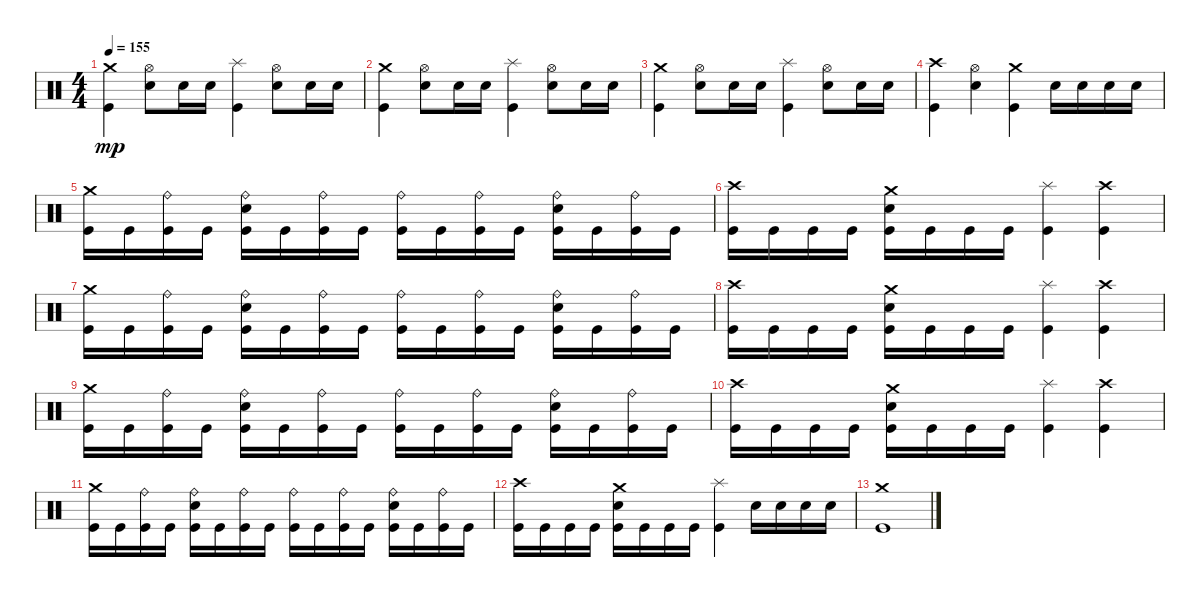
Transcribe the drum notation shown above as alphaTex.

\track "" {instrument percussion}
\staff {score}
\articulation defaults
\ts (4 4)
\tempo 155
\clef neutral
\ks c
("Crash medium (hit)" "Kick (hit)").4{dy mp} ("Snare (hit) 2" "Hi-Hat (open)").8 "Snare (hit) 2".16 "Snare (hit) 2".16 ("Splash (hit)" "Kick (hit)").4 ("Snare (hit) 2" "Hi-Hat (open)").8 "Snare (hit) 2".16 "Snare (hit) 2".16 |
("Crash medium (hit)" "Kick (hit)").4 ("Snare (hit) 2" "Hi-Hat (open)").8 "Snare (hit) 2".16 "Snare (hit) 2".16 ("Splash (hit)" "Kick (hit)").4 ("Snare (hit) 2" "Hi-Hat (open)").8 "Snare (hit) 2".16 "Snare (hit) 2".16 |
("Crash medium (hit)" "Kick (hit)").4 ("Snare (hit) 2" "Hi-Hat (open)").8 "Snare (hit) 2".16 "Snare (hit) 2".16 ("Splash (hit)" "Kick (hit)").4 ("Snare (hit) 2" "Hi-Hat (open)").8 "Snare (hit) 2".16 "Snare (hit) 2".16 |
("Crash high (hit)" "Kick (hit)").4 ("Snare (hit) 2" "Hi-Hat (open)").4 ("Kick (hit)" "Crash medium (hit)").4 "Snare (hit) 2".16 "Snare (hit) 2".16 "Snare (hit) 2".16 "Snare (hit) 2".16 |
("Kick (hit)" "Crash medium (hit)").16 "Kick (hit)".16 ("Kick (hit)" "Ride (bell)").16 "Kick (hit)".16 ("Kick (hit)" "Snare (hit) 2" "Ride (bell)").16 "Kick (hit)".16 ("Kick (hit)" "Ride (bell)").16 "Kick (hit)".16 ("Kick (hit)" "Ride (bell)").16 "Kick (hit)".16 ("Kick (hit)" "Ride (bell)").16 "Kick (hit)".16 ("Kick (hit)" "Snare (hit) 2" "Ride (bell)").16 "Kick (hit)".16 ("Kick (hit)" "Ride (bell)").16 "Kick (hit)".16 |
("Kick (hit)" "Crash high (hit)").16 "Kick (hit)".16 "Kick (hit)".16 "Kick (hit)".16 ("Kick (hit)" "Snare (hit) 2" "Crash medium (hit)").16 "Kick (hit)".16 "Kick (hit)".16 "Kick (hit)".16 ("Kick (hit)" "Splash (hit)").4 ("Kick (hit)" "Crash high (hit)").4 |
("Kick (hit)" "Crash medium (hit)").16 "Kick (hit)".16 ("Kick (hit)" "Ride (bell)").16 "Kick (hit)".16 ("Kick (hit)" "Snare (hit) 2" "Ride (bell)").16 "Kick (hit)".16 ("Kick (hit)" "Ride (bell)").16 "Kick (hit)".16 ("Kick (hit)" "Ride (bell)").16 "Kick (hit)".16 ("Kick (hit)" "Ride (bell)").16 "Kick (hit)".16 ("Kick (hit)" "Snare (hit) 2" "Ride (bell)").16 "Kick (hit)".16 ("Kick (hit)" "Ride (bell)").16 "Kick (hit)".16 |
("Kick (hit)" "Crash high (hit)").16 "Kick (hit)".16 "Kick (hit)".16 "Kick (hit)".16 ("Kick (hit)" "Snare (hit) 2" "Crash medium (hit)").16 "Kick (hit)".16 "Kick (hit)".16 "Kick (hit)".16 ("Kick (hit)" "Splash (hit)").4 ("Kick (hit)" "Crash high (hit)").4 |
("Kick (hit)" "Crash medium (hit)").16 "Kick (hit)".16 ("Kick (hit)" "Ride (bell)").16 "Kick (hit)".16 ("Kick (hit)" "Snare (hit) 2" "Ride (bell)").16 "Kick (hit)".16 ("Kick (hit)" "Ride (bell)").16 "Kick (hit)".16 ("Kick (hit)" "Ride (bell)").16 "Kick (hit)".16 ("Kick (hit)" "Ride (bell)").16 "Kick (hit)".16 ("Kick (hit)" "Snare (hit) 2" "Ride (bell)").16 "Kick (hit)".16 ("Kick (hit)" "Ride (bell)").16 "Kick (hit)".16 |
("Kick (hit)" "Crash high (hit)").16 "Kick (hit)".16 "Kick (hit)".16 "Kick (hit)".16 ("Kick (hit)" "Snare (hit) 2" "Crash medium (hit)").16 "Kick (hit)".16 "Kick (hit)".16 "Kick (hit)".16 ("Kick (hit)" "Splash (hit)").4 ("Kick (hit)" "Crash high (hit)").4 |
("Kick (hit)" "Crash medium (hit)").16 "Kick (hit)".16 ("Kick (hit)" "Ride (bell)").16 "Kick (hit)".16 ("Kick (hit)" "Snare (hit) 2" "Ride (bell)").16 "Kick (hit)".16 ("Kick (hit)" "Ride (bell)").16 "Kick (hit)".16 ("Kick (hit)" "Ride (bell)").16 "Kick (hit)".16 ("Kick (hit)" "Ride (bell)").16 "Kick (hit)".16 ("Kick (hit)" "Snare (hit) 2" "Ride (bell)").16 "Kick (hit)".16 ("Kick (hit)" "Ride (bell)").16 "Kick (hit)".16 |
("Kick (hit)" "Crash high (hit)").16 "Kick (hit)".16 "Kick (hit)".16 "Kick (hit)".16 ("Kick (hit)" "Snare (hit) 2" "Crash medium (hit)").16 "Kick (hit)".16 "Kick (hit)".16 "Kick (hit)".16 ("Kick (hit)" "Splash (hit)").4 "Snare (hit) 2".16 "Snare (hit) 2".16 "Snare (hit) 2".16 "Snare (hit) 2".16 |
("Crash medium (hit)" "Kick (hit)").1
